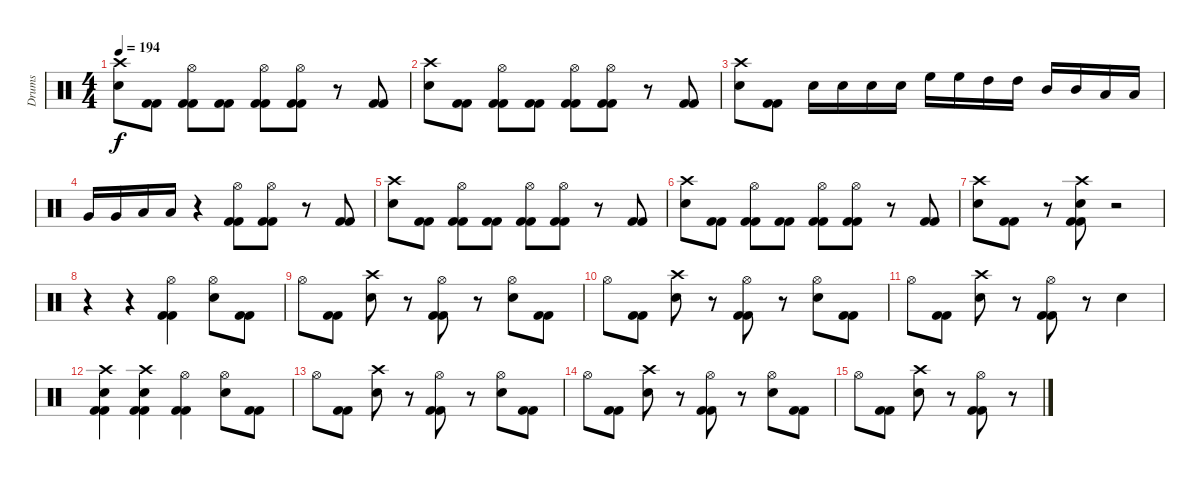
\track ("Drums" "Drums") {instrument percussion}
\staff {score}
\articulation defaults
\ts (4 4)
\tempo 194
\clef neutral
\ks c
("Crash high (hit)" "Electric Snare (hit)").8{dy f} ("Kick (hit) 2" "Kick (hit) 2").8 ("Hi-Hat (open)" "Kick (hit) 2" "Kick (hit) 2").8 ("Kick (hit) 2" "Kick (hit) 2").8 ("Hi-Hat (open)" "Kick (hit) 2" "Kick (hit) 2").8 ("Hi-Hat (open)" "Kick (hit) 2" "Kick (hit) 2").8 r.8 ("Kick (hit) 2" "Kick (hit) 2").8 |
("Crash high (hit)" "Electric Snare (hit)").8 ("Kick (hit) 2" "Kick (hit) 2").8 ("Hi-Hat (open)" "Kick (hit) 2" "Kick (hit) 2").8 ("Kick (hit) 2" "Kick (hit) 2").8 ("Hi-Hat (open)" "Kick (hit) 2" "Kick (hit) 2").8 ("Hi-Hat (open)" "Kick (hit) 2" "Kick (hit) 2").8 r.8 ("Kick (hit) 2" "Kick (hit) 2").8 |
("Crash high (hit)" "Electric Snare (hit)").8 ("Kick (hit) 2" "Kick (hit) 2").8 "Electric Snare (hit)".16 "Electric Snare (hit)".16 "Electric Snare (hit)".16 "Electric Snare (hit)".16 "High Floor Tom (hit)".16 "High Floor Tom (hit)".16 "High Tom (hit)".16 "High Tom (hit)".16 "Mid Tom (hit)".16 "Mid Tom (hit)".16 "Low Tom (hit)".16 "Low Tom (hit)".16 |
"Very Low Tom (hit)".16 "Very Low Tom (hit)".16 "Low Floor Tom (hit)".16 "Low Floor Tom (hit)".16 r.4 ("Hi-Hat (open)" "Kick (hit) 2" "Kick (hit) 2").8 ("Hi-Hat (open)" "Kick (hit) 2" "Kick (hit) 2").8 r.8 ("Kick (hit) 2" "Kick (hit) 2").8 |
("Crash high (hit)" "Electric Snare (hit)").8 ("Kick (hit) 2" "Kick (hit) 2").8 ("Hi-Hat (open)" "Kick (hit) 2" "Kick (hit) 2").8 ("Kick (hit) 2" "Kick (hit) 2").8 ("Hi-Hat (open)" "Kick (hit) 2" "Kick (hit) 2").8 ("Hi-Hat (open)" "Kick (hit) 2" "Kick (hit) 2").8 r.8 ("Kick (hit) 2" "Kick (hit) 2").8 |
("Crash high (hit)" "Electric Snare (hit)").8 ("Kick (hit) 2" "Kick (hit) 2").8 ("Hi-Hat (open)" "Kick (hit) 2" "Kick (hit) 2").8 ("Kick (hit) 2" "Kick (hit) 2").8 ("Hi-Hat (open)" "Kick (hit) 2" "Kick (hit) 2").8 ("Hi-Hat (open)" "Kick (hit) 2" "Kick (hit) 2").8 r.8 ("Kick (hit) 2" "Kick (hit) 2").8 |
("Crash high (hit)" "Electric Snare (hit)").8 ("Kick (hit) 2" "Kick (hit) 2").8 r.8 ("Crash high (hit)" "Electric Snare (hit)" "Kick (hit) 2" "Kick (hit) 2").8 r.2 |
r.4 r.4 ("Hi-Hat (open)" "Kick (hit) 2" "Kick (hit) 2").4 ("Hi-Hat (open)" "Electric Snare (hit)").8 ("Kick (hit) 2" "Kick (hit) 2").8 |
"Hi-Hat (open)".8 ("Kick (hit) 2" "Kick (hit) 2").8 ("Crash high (hit)" "Electric Snare (hit)").8 r.8 ("Hi-Hat (open)" "Kick (hit) 2" "Kick (hit) 2").8 r.8 ("Hi-Hat (open)" "Electric Snare (hit)").8 ("Kick (hit) 2" "Kick (hit) 2").8 |
"Hi-Hat (open)".8 ("Kick (hit) 2" "Kick (hit) 2").8 ("Crash high (hit)" "Electric Snare (hit)").8 r.8 ("Hi-Hat (open)" "Kick (hit) 2" "Kick (hit) 2").8 r.8 ("Hi-Hat (open)" "Electric Snare (hit)").8 ("Kick (hit) 2" "Kick (hit) 2").8 |
"Hi-Hat (open)".8 ("Kick (hit) 2" "Kick (hit) 2").8 ("Crash high (hit)" "Electric Snare (hit)").8 r.8 ("Hi-Hat (open)" "Kick (hit) 2" "Kick (hit) 2").8 r.8 "Electric Snare (hit)".4 |
("Crash high (hit)" "Electric Snare (hit)" "Kick (hit) 2" "Kick (hit) 2").4 ("Crash high (hit)" "Electric Snare (hit)" "Kick (hit) 2" "Kick (hit) 2").4 ("Hi-Hat (open)" "Kick (hit) 2" "Kick (hit) 2").4 ("Hi-Hat (open)" "Electric Snare (hit)").8 ("Kick (hit) 2" "Kick (hit) 2").8 |
"Hi-Hat (open)".8 ("Kick (hit) 2" "Kick (hit) 2").8 ("Crash high (hit)" "Electric Snare (hit)").8 r.8 ("Hi-Hat (open)" "Kick (hit) 2" "Kick (hit) 2").8 r.8 ("Hi-Hat (open)" "Electric Snare (hit)").8 ("Kick (hit) 2" "Kick (hit) 2").8 |
"Hi-Hat (open)".8 ("Kick (hit) 2" "Kick (hit) 2").8 ("Crash high (hit)" "Electric Snare (hit)").8 r.8 ("Hi-Hat (open)" "Kick (hit) 2" "Kick (hit) 2").8 r.8 ("Hi-Hat (open)" "Electric Snare (hit)").8 ("Kick (hit) 2" "Kick (hit) 2").8 |
"Hi-Hat (open)".8 ("Kick (hit) 2" "Kick (hit) 2").8 ("Crash high (hit)" "Electric Snare (hit)").8 r.8 ("Hi-Hat (open)" "Kick (hit) 2" "Kick (hit) 2").8 r.8
